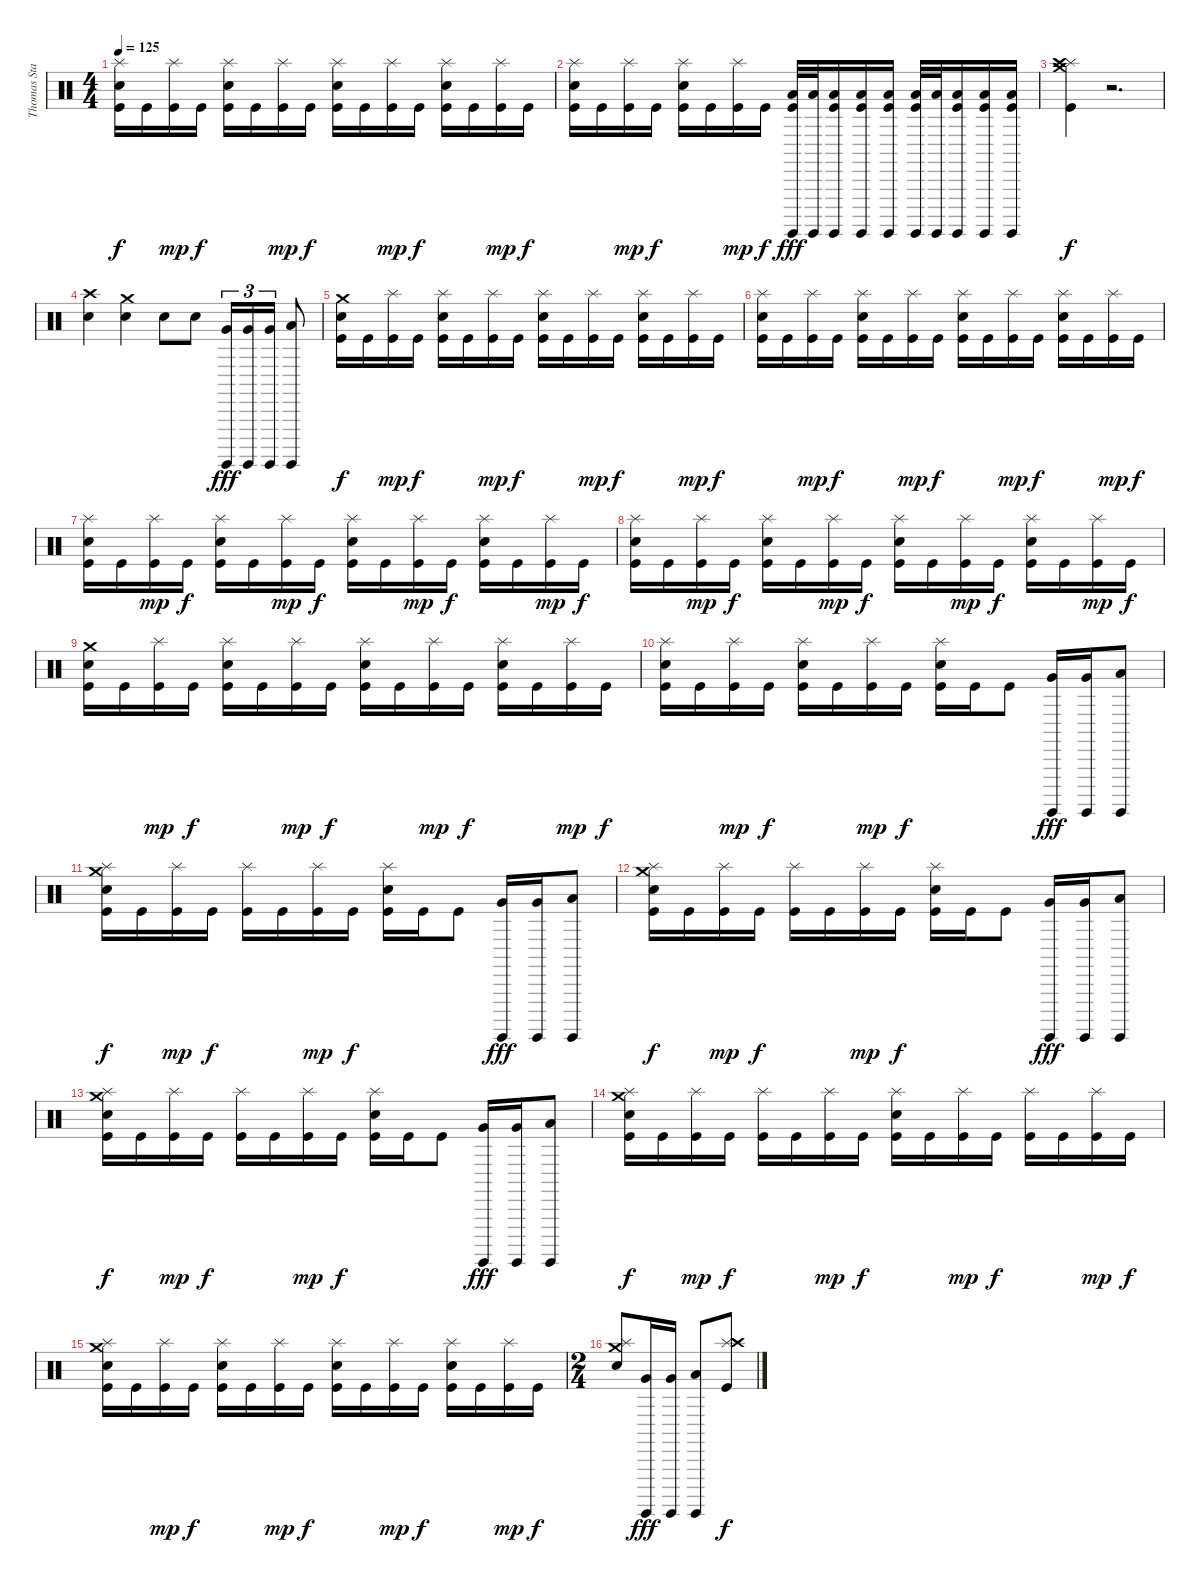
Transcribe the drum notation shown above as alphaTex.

\track ("Thomas Stauch" "Thomas Sta") {instrument percussion}
\staff {score}
\articulation defaults
\ts (4 4)
\tempo 125
\clef neutral
\ks c
("Splash (hit)" "Electric Snare (hit)" "Kick (hit)").16{dy f} "Kick (hit)".16 ("Splash (hit)" "Kick (hit)").16{dy mp} "Kick (hit)".16{dy f} ("Splash (hit)" "Electric Snare (hit)" "Kick (hit)").16 "Kick (hit)".16 ("Splash (hit)" "Kick (hit)").16{dy mp} "Kick (hit)".16{dy f} ("Splash (hit)" "Electric Snare (hit)" "Kick (hit)").16 "Kick (hit)".16 ("Splash (hit)" "Kick (hit)").16{dy mp} "Kick (hit)".16{dy f} ("Splash (hit)" "Electric Snare (hit)" "Kick (hit)").16 "Kick (hit)".16 ("Splash (hit)" "Kick (hit)").16{dy mp} "Kick (hit)".16{dy f} |
("Splash (hit)" "Electric Snare (hit)" "Kick (hit)").16 "Kick (hit)".16 ("Splash (hit)" "Kick (hit)").16{dy mp} "Kick (hit)".16{dy f} ("Splash (hit)" "Electric Snare (hit)" "Kick (hit)").16 "Kick (hit)".16 ("Splash (hit)" "Kick (hit)").16{dy mp} "Kick (hit)".16{dy f} ("Surdo (hit)" "Low Floor Tom (hit)" "Kick (hit)").32{dy fff} ("Surdo (hit)" "Low Floor Tom (hit)").32 ("Surdo (hit)" "Low Floor Tom (hit)" "Kick (hit)").16 ("Surdo (hit)" "Low Floor Tom (hit)" "Kick (hit)").16 ("Surdo (hit)" "Low Floor Tom (hit)" "Kick (hit)").16 ("Surdo (hit)" "Low Floor Tom (hit)" "Kick (hit)").32 ("Surdo (hit)" "Low Floor Tom (hit)").32 ("Surdo (hit)" "Low Floor Tom (hit)" "Kick (hit)").16 ("Surdo (hit)" "Low Floor Tom (hit)" "Kick (hit)").16 ("Surdo (hit)" "Low Floor Tom (hit)" "Kick (hit)").16 |
("Crash medium (hit)" "Splash (hit)" "Crash high (hit)" "Kick (hit)").4{dy f} r.2{d} |
("Crash high (hit)" "Electric Snare (hit)").4 ("Crash medium (hit)" "Electric Snare (hit)").4 "Electric Snare (hit)".8 "Electric Snare (hit)".8 ("Surdo (hit)" "Very Low Tom (hit)").16{tu (3 2) dy fff} ("Surdo (hit)" "Very Low Tom (hit)").16{tu (3 2)} ("Surdo (hit)" "Very Low Tom (hit)").16{tu (3 2)} ("Surdo (hit)" "Low Floor Tom (hit)").8 |
("Crash medium (hit)" "Electric Snare (hit)" "Kick (hit)").16{dy f} "Kick (hit)".16 ("Splash (hit)" "Kick (hit)").16{dy mp} "Kick (hit)".16{dy f} ("Splash (hit)" "Electric Snare (hit)" "Kick (hit)").16 "Kick (hit)".16 ("Splash (hit)" "Kick (hit)").16{dy mp} "Kick (hit)".16{dy f} ("Splash (hit)" "Electric Snare (hit)" "Kick (hit)").16 "Kick (hit)".16 ("Splash (hit)" "Kick (hit)").16{dy mp} "Kick (hit)".16{dy f} ("Splash (hit)" "Electric Snare (hit)" "Kick (hit)").16 "Kick (hit)".16 ("Splash (hit)" "Kick (hit)").16{dy mp} "Kick (hit)".16{dy f} |
("Splash (hit)" "Electric Snare (hit)" "Kick (hit)").16 "Kick (hit)".16 ("Splash (hit)" "Kick (hit)").16{dy mp} "Kick (hit)".16{dy f} ("Splash (hit)" "Electric Snare (hit)" "Kick (hit)").16 "Kick (hit)".16 ("Splash (hit)" "Kick (hit)").16{dy mp} "Kick (hit)".16{dy f} ("Splash (hit)" "Electric Snare (hit)" "Kick (hit)").16 "Kick (hit)".16 ("Splash (hit)" "Kick (hit)").16{dy mp} "Kick (hit)".16{dy f} ("Splash (hit)" "Electric Snare (hit)" "Kick (hit)").16 "Kick (hit)".16 ("Splash (hit)" "Kick (hit)").16{dy mp} "Kick (hit)".16{dy f} |
("Splash (hit)" "Electric Snare (hit)" "Kick (hit)").16 "Kick (hit)".16 ("Splash (hit)" "Kick (hit)").16{dy mp} "Kick (hit)".16{dy f} ("Splash (hit)" "Electric Snare (hit)" "Kick (hit)").16 "Kick (hit)".16 ("Splash (hit)" "Kick (hit)").16{dy mp} "Kick (hit)".16{dy f} ("Splash (hit)" "Electric Snare (hit)" "Kick (hit)").16 "Kick (hit)".16 ("Splash (hit)" "Kick (hit)").16{dy mp} "Kick (hit)".16{dy f} ("Splash (hit)" "Electric Snare (hit)" "Kick (hit)").16 "Kick (hit)".16 ("Splash (hit)" "Kick (hit)").16{dy mp} "Kick (hit)".16{dy f} |
("Splash (hit)" "Electric Snare (hit)" "Kick (hit)").16 "Kick (hit)".16 ("Splash (hit)" "Kick (hit)").16{dy mp} "Kick (hit)".16{dy f} ("Splash (hit)" "Electric Snare (hit)" "Kick (hit)").16 "Kick (hit)".16 ("Splash (hit)" "Kick (hit)").16{dy mp} "Kick (hit)".16{dy f} ("Splash (hit)" "Electric Snare (hit)" "Kick (hit)").16 "Kick (hit)".16 ("Splash (hit)" "Kick (hit)").16{dy mp} "Kick (hit)".16{dy f} ("Splash (hit)" "Electric Snare (hit)" "Kick (hit)").16 "Kick (hit)".16 ("Splash (hit)" "Kick (hit)").16{dy mp} "Kick (hit)".16{dy f} |
("Crash medium (hit)" "Electric Snare (hit)" "Kick (hit)").16 "Kick (hit)".16 ("Splash (hit)" "Kick (hit)").16{dy mp} "Kick (hit)".16{dy f} ("Splash (hit)" "Electric Snare (hit)" "Kick (hit)").16 "Kick (hit)".16 ("Splash (hit)" "Kick (hit)").16{dy mp} "Kick (hit)".16{dy f} ("Splash (hit)" "Electric Snare (hit)" "Kick (hit)").16 "Kick (hit)".16 ("Splash (hit)" "Kick (hit)").16{dy mp} "Kick (hit)".16{dy f} ("Splash (hit)" "Electric Snare (hit)" "Kick (hit)").16 "Kick (hit)".16 ("Splash (hit)" "Kick (hit)").16{dy mp} "Kick (hit)".16{dy f} |
("Splash (hit)" "Electric Snare (hit)" "Kick (hit)").16 "Kick (hit)".16 ("Splash (hit)" "Kick (hit)").16{dy mp} "Kick (hit)".16{dy f} ("Splash (hit)" "Electric Snare (hit)" "Kick (hit)").16 "Kick (hit)".16 ("Splash (hit)" "Kick (hit)").16{dy mp} "Kick (hit)".16{dy f} ("Splash (hit)" "Electric Snare (hit)" "Kick (hit)").16 "Kick (hit)".16 "Kick (hit)".8 ("Surdo (hit)" "Very Low Tom (hit)").16{dy fff} ("Surdo (hit)" "Very Low Tom (hit)").16 ("Surdo (hit)" "Low Floor Tom (hit)").8 |
("Crash medium (hit)" "Splash (hit)" "Electric Snare (hit)" "Kick (hit)").16{dy f} "Kick (hit)".16 ("Splash (hit)" "Kick (hit)").16{dy mp} "Kick (hit)".16{dy f} ("Splash (hit)" "Kick (hit)").16 "Kick (hit)".16 ("Splash (hit)" "Kick (hit)").16{dy mp} "Kick (hit)".16{dy f} ("Splash (hit)" "Electric Snare (hit)" "Kick (hit)").16 "Kick (hit)".16 "Kick (hit)".8 ("Surdo (hit)" "Very Low Tom (hit)").16{dy fff} ("Surdo (hit)" "Very Low Tom (hit)").16 ("Surdo (hit)" "Low Floor Tom (hit)").8 |
("Crash medium (hit)" "Splash (hit)" "Electric Snare (hit)" "Kick (hit)").16{dy f} "Kick (hit)".16 ("Splash (hit)" "Kick (hit)").16{dy mp} "Kick (hit)".16{dy f} ("Splash (hit)" "Kick (hit)").16 "Kick (hit)".16 ("Splash (hit)" "Kick (hit)").16{dy mp} "Kick (hit)".16{dy f} ("Splash (hit)" "Electric Snare (hit)" "Kick (hit)").16 "Kick (hit)".16 "Kick (hit)".8 ("Surdo (hit)" "Very Low Tom (hit)").16{dy fff} ("Surdo (hit)" "Very Low Tom (hit)").16 ("Surdo (hit)" "Low Floor Tom (hit)").8 |
("Crash medium (hit)" "Splash (hit)" "Electric Snare (hit)" "Kick (hit)").16{dy f} "Kick (hit)".16 ("Splash (hit)" "Kick (hit)").16{dy mp} "Kick (hit)".16{dy f} ("Splash (hit)" "Kick (hit)").16 "Kick (hit)".16 ("Splash (hit)" "Kick (hit)").16{dy mp} "Kick (hit)".16{dy f} ("Splash (hit)" "Electric Snare (hit)" "Kick (hit)").16 "Kick (hit)".16 "Kick (hit)".8 ("Surdo (hit)" "Very Low Tom (hit)").16{dy fff} ("Surdo (hit)" "Very Low Tom (hit)").16 ("Surdo (hit)" "Low Floor Tom (hit)").8 |
("Crash medium (hit)" "Splash (hit)" "Electric Snare (hit)" "Kick (hit)").16{dy f} "Kick (hit)".16 ("Splash (hit)" "Kick (hit)").16{dy mp} "Kick (hit)".16{dy f} ("Splash (hit)" "Kick (hit)").16 "Kick (hit)".16 ("Splash (hit)" "Kick (hit)").16{dy mp} "Kick (hit)".16{dy f} ("Splash (hit)" "Electric Snare (hit)" "Kick (hit)").16 "Kick (hit)".16 ("Splash (hit)" "Kick (hit)").16{dy mp} "Kick (hit)".16{dy f} ("Splash (hit)" "Kick (hit)").16 "Kick (hit)".16 ("Splash (hit)" "Kick (hit)").16{dy mp} "Kick (hit)".16{dy f} |
("Crash medium (hit)" "Splash (hit)" "Electric Snare (hit)" "Kick (hit)").16 "Kick (hit)".16 ("Splash (hit)" "Kick (hit)").16{dy mp} "Kick (hit)".16{dy f} ("Splash (hit)" "Electric Snare (hit)" "Kick (hit)").16 "Kick (hit)".16 ("Splash (hit)" "Kick (hit)").16{dy mp} "Kick (hit)".16{dy f} ("Splash (hit)" "Electric Snare (hit)" "Kick (hit)").16 "Kick (hit)".16 ("Splash (hit)" "Kick (hit)").16{dy mp} "Kick (hit)".16{dy f} ("Splash (hit)" "Electric Snare (hit)" "Kick (hit)").16 "Kick (hit)".16 ("Splash (hit)" "Kick (hit)").16{dy mp} "Kick (hit)".16{dy f} |
\ts (2 4)
("Crash medium (hit)" "Splash (hit)" "Electric Snare (hit)").8 ("Surdo (hit)" "Very Low Tom (hit)").16{dy fff} ("Surdo (hit)" "Very Low Tom (hit)").16 ("Surdo (hit)" "Low Floor Tom (hit)").8 ("Splash (hit)" "Crash high (hit)" "Kick (hit)").8{dy f}
